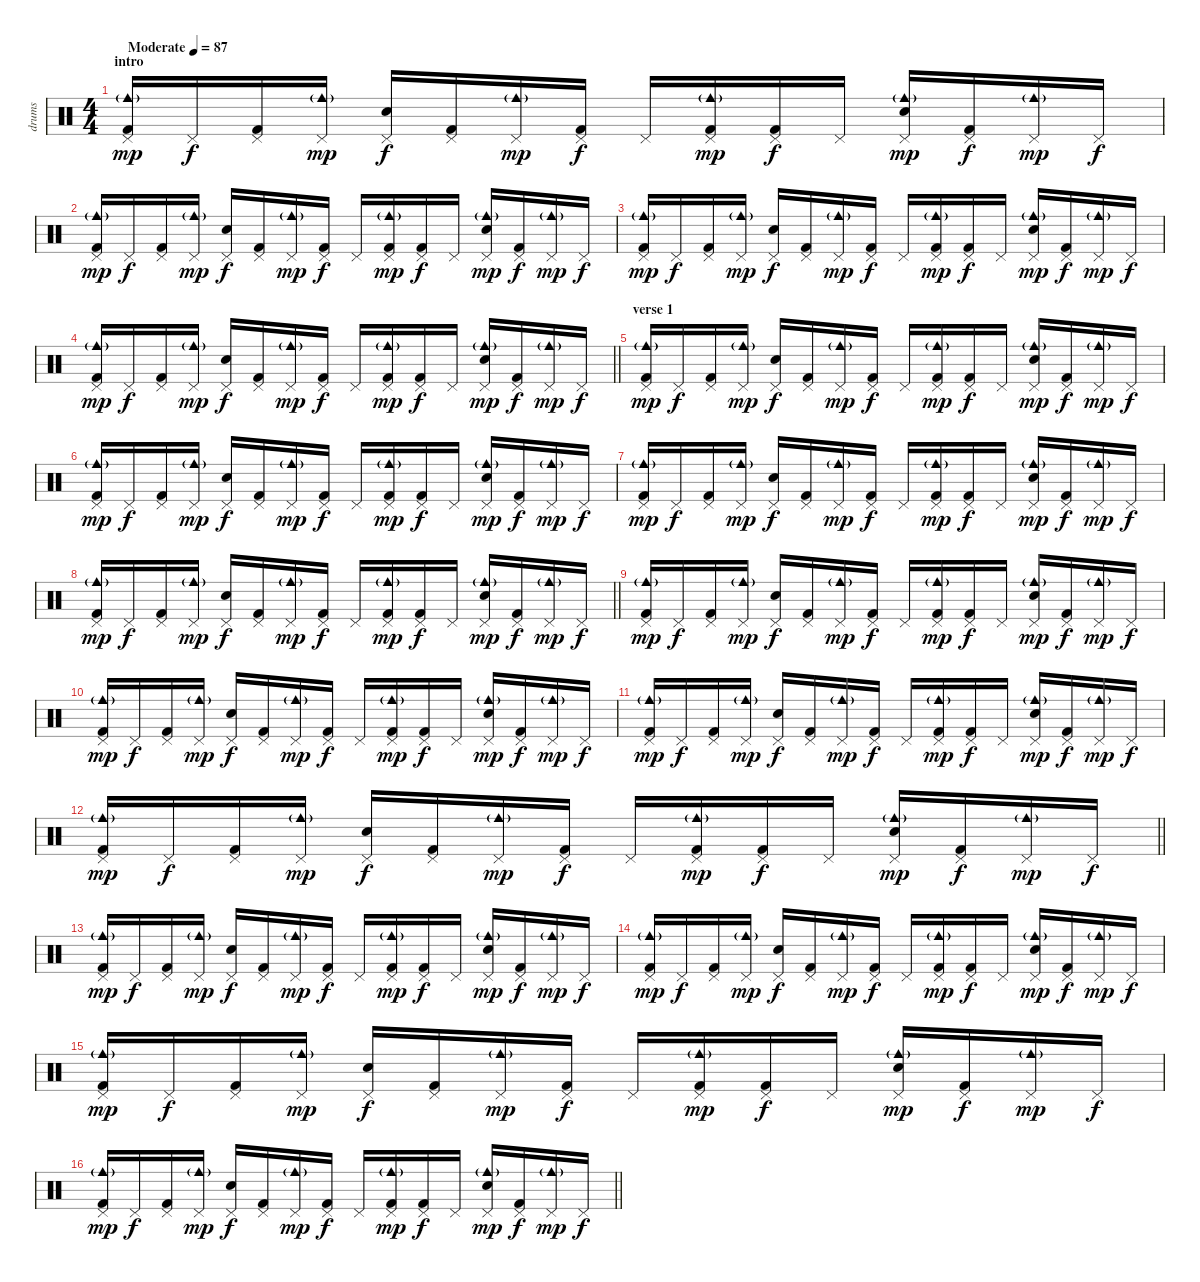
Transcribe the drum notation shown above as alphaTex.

\track ("drums" "drums") {instrument percussion}
\staff {score}
\articulation defaults
\ts (4 4)
\section ("" "intro")
\tempo (87 "Moderate")
\clef neutral
\ks c
("Kick (hit) 2" "Pedal Hi-Hat (hit)" "Cowbell medium (hit)"{g}).16{dy mp} "Pedal Hi-Hat (hit)".16{dy f} ("Kick (hit) 2" "Pedal Hi-Hat (hit)").16 ("Pedal Hi-Hat (hit)" "Cowbell medium (hit)"{g}).16{dy mp} ("Snare (hit) 2" "Pedal Hi-Hat (hit)").16{dy f} ("Kick (hit) 2" "Pedal Hi-Hat (hit)").16 ("Pedal Hi-Hat (hit)" "Cowbell medium (hit)"{g}).16{dy mp} ("Kick (hit) 2" "Pedal Hi-Hat (hit)").16{dy f} "Pedal Hi-Hat (hit)".16 ("Kick (hit) 2" "Pedal Hi-Hat (hit)" "Cowbell medium (hit)"{g}).16{dy mp} ("Kick (hit) 2" "Pedal Hi-Hat (hit)").16{dy f} "Pedal Hi-Hat (hit)".16 ("Snare (hit) 2" "Pedal Hi-Hat (hit)" "Cowbell medium (hit)"{g}).16{dy mp} ("Kick (hit) 2" "Pedal Hi-Hat (hit)").16{dy f} ("Pedal Hi-Hat (hit)" "Cowbell medium (hit)"{g}).16{dy mp} "Pedal Hi-Hat (hit)".16{dy f} |
("Kick (hit) 2" "Pedal Hi-Hat (hit)" "Cowbell medium (hit)"{g}).16{dy mp} "Pedal Hi-Hat (hit)".16{dy f} ("Kick (hit) 2" "Pedal Hi-Hat (hit)").16 ("Pedal Hi-Hat (hit)" "Cowbell medium (hit)"{g}).16{dy mp} ("Snare (hit) 2" "Pedal Hi-Hat (hit)").16{dy f} ("Kick (hit) 2" "Pedal Hi-Hat (hit)").16 ("Pedal Hi-Hat (hit)" "Cowbell medium (hit)"{g}).16{dy mp} ("Kick (hit) 2" "Pedal Hi-Hat (hit)").16{dy f} "Pedal Hi-Hat (hit)".16 ("Kick (hit) 2" "Pedal Hi-Hat (hit)" "Cowbell medium (hit)"{g}).16{dy mp} ("Kick (hit) 2" "Pedal Hi-Hat (hit)").16{dy f} "Pedal Hi-Hat (hit)".16 ("Snare (hit) 2" "Pedal Hi-Hat (hit)" "Cowbell medium (hit)"{g}).16{dy mp} ("Kick (hit) 2" "Pedal Hi-Hat (hit)").16{dy f} ("Pedal Hi-Hat (hit)" "Cowbell medium (hit)"{g}).16{dy mp} "Pedal Hi-Hat (hit)".16{dy f} |
("Kick (hit) 2" "Pedal Hi-Hat (hit)" "Cowbell medium (hit)"{g}).16{dy mp} "Pedal Hi-Hat (hit)".16{dy f} ("Kick (hit) 2" "Pedal Hi-Hat (hit)").16 ("Pedal Hi-Hat (hit)" "Cowbell medium (hit)"{g}).16{dy mp} ("Snare (hit) 2" "Pedal Hi-Hat (hit)").16{dy f} ("Kick (hit) 2" "Pedal Hi-Hat (hit)").16 ("Pedal Hi-Hat (hit)" "Cowbell medium (hit)"{g}).16{dy mp} ("Kick (hit) 2" "Pedal Hi-Hat (hit)").16{dy f} "Pedal Hi-Hat (hit)".16 ("Kick (hit) 2" "Pedal Hi-Hat (hit)" "Cowbell medium (hit)"{g}).16{dy mp} ("Kick (hit) 2" "Pedal Hi-Hat (hit)").16{dy f} "Pedal Hi-Hat (hit)".16 ("Snare (hit) 2" "Pedal Hi-Hat (hit)" "Cowbell medium (hit)"{g}).16{dy mp} ("Kick (hit) 2" "Pedal Hi-Hat (hit)").16{dy f} ("Pedal Hi-Hat (hit)" "Cowbell medium (hit)"{g}).16{dy mp} "Pedal Hi-Hat (hit)".16{dy f} |
\barLineRight lightlight
("Kick (hit) 2" "Pedal Hi-Hat (hit)" "Cowbell medium (hit)"{g}).16{dy mp} "Pedal Hi-Hat (hit)".16{dy f} ("Kick (hit) 2" "Pedal Hi-Hat (hit)").16 ("Pedal Hi-Hat (hit)" "Cowbell medium (hit)"{g}).16{dy mp} ("Snare (hit) 2" "Pedal Hi-Hat (hit)").16{dy f} ("Kick (hit) 2" "Pedal Hi-Hat (hit)").16 ("Pedal Hi-Hat (hit)" "Cowbell medium (hit)"{g}).16{dy mp} ("Kick (hit) 2" "Pedal Hi-Hat (hit)").16{dy f} "Pedal Hi-Hat (hit)".16 ("Kick (hit) 2" "Pedal Hi-Hat (hit)" "Cowbell medium (hit)"{g}).16{dy mp} ("Kick (hit) 2" "Pedal Hi-Hat (hit)").16{dy f} "Pedal Hi-Hat (hit)".16 ("Snare (hit) 2" "Pedal Hi-Hat (hit)" "Cowbell medium (hit)"{g}).16{dy mp} ("Kick (hit) 2" "Pedal Hi-Hat (hit)").16{dy f} ("Pedal Hi-Hat (hit)" "Cowbell medium (hit)"{g}).16{dy mp} "Pedal Hi-Hat (hit)".16{dy f} |
\section ("" "verse 1")
("Kick (hit) 2" "Pedal Hi-Hat (hit)" "Cowbell medium (hit)"{g}).16{dy mp} "Pedal Hi-Hat (hit)".16{dy f} ("Kick (hit) 2" "Pedal Hi-Hat (hit)").16 ("Pedal Hi-Hat (hit)" "Cowbell medium (hit)"{g}).16{dy mp} ("Snare (hit) 2" "Pedal Hi-Hat (hit)").16{dy f} ("Kick (hit) 2" "Pedal Hi-Hat (hit)").16 ("Pedal Hi-Hat (hit)" "Cowbell medium (hit)"{g}).16{dy mp} ("Kick (hit) 2" "Pedal Hi-Hat (hit)").16{dy f} "Pedal Hi-Hat (hit)".16 ("Kick (hit) 2" "Pedal Hi-Hat (hit)" "Cowbell medium (hit)"{g}).16{dy mp} ("Kick (hit) 2" "Pedal Hi-Hat (hit)").16{dy f} "Pedal Hi-Hat (hit)".16 ("Snare (hit) 2" "Pedal Hi-Hat (hit)" "Cowbell medium (hit)"{g}).16{dy mp} ("Kick (hit) 2" "Pedal Hi-Hat (hit)").16{dy f} ("Pedal Hi-Hat (hit)" "Cowbell medium (hit)"{g}).16{dy mp} "Pedal Hi-Hat (hit)".16{dy f} |
("Kick (hit) 2" "Pedal Hi-Hat (hit)" "Cowbell medium (hit)"{g}).16{dy mp} "Pedal Hi-Hat (hit)".16{dy f} ("Kick (hit) 2" "Pedal Hi-Hat (hit)").16 ("Pedal Hi-Hat (hit)" "Cowbell medium (hit)"{g}).16{dy mp} ("Snare (hit) 2" "Pedal Hi-Hat (hit)").16{dy f} ("Kick (hit) 2" "Pedal Hi-Hat (hit)").16 ("Pedal Hi-Hat (hit)" "Cowbell medium (hit)"{g}).16{dy mp} ("Kick (hit) 2" "Pedal Hi-Hat (hit)").16{dy f} "Pedal Hi-Hat (hit)".16 ("Kick (hit) 2" "Pedal Hi-Hat (hit)" "Cowbell medium (hit)"{g}).16{dy mp} ("Kick (hit) 2" "Pedal Hi-Hat (hit)").16{dy f} "Pedal Hi-Hat (hit)".16 ("Snare (hit) 2" "Pedal Hi-Hat (hit)" "Cowbell medium (hit)"{g}).16{dy mp} ("Kick (hit) 2" "Pedal Hi-Hat (hit)").16{dy f} ("Pedal Hi-Hat (hit)" "Cowbell medium (hit)"{g}).16{dy mp} "Pedal Hi-Hat (hit)".16{dy f} |
("Kick (hit) 2" "Pedal Hi-Hat (hit)" "Cowbell medium (hit)"{g}).16{dy mp} "Pedal Hi-Hat (hit)".16{dy f} ("Kick (hit) 2" "Pedal Hi-Hat (hit)").16 ("Pedal Hi-Hat (hit)" "Cowbell medium (hit)"{g}).16{dy mp} ("Snare (hit) 2" "Pedal Hi-Hat (hit)").16{dy f} ("Kick (hit) 2" "Pedal Hi-Hat (hit)").16 ("Pedal Hi-Hat (hit)" "Cowbell medium (hit)"{g}).16{dy mp} ("Kick (hit) 2" "Pedal Hi-Hat (hit)").16{dy f} "Pedal Hi-Hat (hit)".16 ("Kick (hit) 2" "Pedal Hi-Hat (hit)" "Cowbell medium (hit)"{g}).16{dy mp} ("Kick (hit) 2" "Pedal Hi-Hat (hit)").16{dy f} "Pedal Hi-Hat (hit)".16 ("Snare (hit) 2" "Pedal Hi-Hat (hit)" "Cowbell medium (hit)"{g}).16{dy mp} ("Kick (hit) 2" "Pedal Hi-Hat (hit)").16{dy f} ("Pedal Hi-Hat (hit)" "Cowbell medium (hit)"{g}).16{dy mp} "Pedal Hi-Hat (hit)".16{dy f} |
\barLineRight lightlight
("Kick (hit) 2" "Pedal Hi-Hat (hit)" "Cowbell medium (hit)"{g}).16{dy mp} "Pedal Hi-Hat (hit)".16{dy f} ("Kick (hit) 2" "Pedal Hi-Hat (hit)").16 ("Pedal Hi-Hat (hit)" "Cowbell medium (hit)"{g}).16{dy mp} ("Snare (hit) 2" "Pedal Hi-Hat (hit)").16{dy f} ("Kick (hit) 2" "Pedal Hi-Hat (hit)").16 ("Pedal Hi-Hat (hit)" "Cowbell medium (hit)"{g}).16{dy mp} ("Kick (hit) 2" "Pedal Hi-Hat (hit)").16{dy f} "Pedal Hi-Hat (hit)".16 ("Kick (hit) 2" "Pedal Hi-Hat (hit)" "Cowbell medium (hit)"{g}).16{dy mp} ("Kick (hit) 2" "Pedal Hi-Hat (hit)").16{dy f} "Pedal Hi-Hat (hit)".16 ("Snare (hit) 2" "Pedal Hi-Hat (hit)" "Cowbell medium (hit)"{g}).16{dy mp} ("Kick (hit) 2" "Pedal Hi-Hat (hit)").16{dy f} ("Pedal Hi-Hat (hit)" "Cowbell medium (hit)"{g}).16{dy mp} "Pedal Hi-Hat (hit)".16{dy f} |
("Kick (hit) 2" "Pedal Hi-Hat (hit)" "Cowbell medium (hit)"{g}).16{dy mp} "Pedal Hi-Hat (hit)".16{dy f} ("Kick (hit) 2" "Pedal Hi-Hat (hit)").16 ("Pedal Hi-Hat (hit)" "Cowbell medium (hit)"{g}).16{dy mp} ("Snare (hit) 2" "Pedal Hi-Hat (hit)").16{dy f} ("Kick (hit) 2" "Pedal Hi-Hat (hit)").16 ("Pedal Hi-Hat (hit)" "Cowbell medium (hit)"{g}).16{dy mp} ("Kick (hit) 2" "Pedal Hi-Hat (hit)").16{dy f} "Pedal Hi-Hat (hit)".16 ("Kick (hit) 2" "Pedal Hi-Hat (hit)" "Cowbell medium (hit)"{g}).16{dy mp} ("Kick (hit) 2" "Pedal Hi-Hat (hit)").16{dy f} "Pedal Hi-Hat (hit)".16 ("Snare (hit) 2" "Pedal Hi-Hat (hit)" "Cowbell medium (hit)"{g}).16{dy mp} ("Kick (hit) 2" "Pedal Hi-Hat (hit)").16{dy f} ("Pedal Hi-Hat (hit)" "Cowbell medium (hit)"{g}).16{dy mp} "Pedal Hi-Hat (hit)".16{dy f} |
("Kick (hit) 2" "Pedal Hi-Hat (hit)" "Cowbell medium (hit)"{g}).16{dy mp} "Pedal Hi-Hat (hit)".16{dy f} ("Kick (hit) 2" "Pedal Hi-Hat (hit)").16 ("Pedal Hi-Hat (hit)" "Cowbell medium (hit)"{g}).16{dy mp} ("Snare (hit) 2" "Pedal Hi-Hat (hit)").16{dy f} ("Kick (hit) 2" "Pedal Hi-Hat (hit)").16 ("Pedal Hi-Hat (hit)" "Cowbell medium (hit)"{g}).16{dy mp} ("Kick (hit) 2" "Pedal Hi-Hat (hit)").16{dy f} "Pedal Hi-Hat (hit)".16 ("Kick (hit) 2" "Pedal Hi-Hat (hit)" "Cowbell medium (hit)"{g}).16{dy mp} ("Kick (hit) 2" "Pedal Hi-Hat (hit)").16{dy f} "Pedal Hi-Hat (hit)".16 ("Snare (hit) 2" "Pedal Hi-Hat (hit)" "Cowbell medium (hit)"{g}).16{dy mp} ("Kick (hit) 2" "Pedal Hi-Hat (hit)").16{dy f} ("Pedal Hi-Hat (hit)" "Cowbell medium (hit)"{g}).16{dy mp} "Pedal Hi-Hat (hit)".16{dy f} |
("Kick (hit) 2" "Pedal Hi-Hat (hit)" "Cowbell medium (hit)"{g}).16{dy mp} "Pedal Hi-Hat (hit)".16{dy f} ("Kick (hit) 2" "Pedal Hi-Hat (hit)").16 ("Pedal Hi-Hat (hit)" "Cowbell medium (hit)"{g}).16{dy mp} ("Snare (hit) 2" "Pedal Hi-Hat (hit)").16{dy f} ("Kick (hit) 2" "Pedal Hi-Hat (hit)").16 ("Pedal Hi-Hat (hit)" "Cowbell medium (hit)"{g}).16{dy mp} ("Kick (hit) 2" "Pedal Hi-Hat (hit)").16{dy f} "Pedal Hi-Hat (hit)".16 ("Kick (hit) 2" "Pedal Hi-Hat (hit)" "Cowbell medium (hit)"{g}).16{dy mp} ("Kick (hit) 2" "Pedal Hi-Hat (hit)").16{dy f} "Pedal Hi-Hat (hit)".16 ("Snare (hit) 2" "Pedal Hi-Hat (hit)" "Cowbell medium (hit)"{g}).16{dy mp} ("Kick (hit) 2" "Pedal Hi-Hat (hit)").16{dy f} ("Pedal Hi-Hat (hit)" "Cowbell medium (hit)"{g}).16{dy mp} "Pedal Hi-Hat (hit)".16{dy f} |
\barLineRight lightlight
("Kick (hit) 2" "Pedal Hi-Hat (hit)" "Cowbell medium (hit)"{g}).16{dy mp} "Pedal Hi-Hat (hit)".16{dy f} ("Kick (hit) 2" "Pedal Hi-Hat (hit)").16 ("Pedal Hi-Hat (hit)" "Cowbell medium (hit)"{g}).16{dy mp} ("Snare (hit) 2" "Pedal Hi-Hat (hit)").16{dy f} ("Kick (hit) 2" "Pedal Hi-Hat (hit)").16 ("Pedal Hi-Hat (hit)" "Cowbell medium (hit)"{g}).16{dy mp} ("Kick (hit) 2" "Pedal Hi-Hat (hit)").16{dy f} "Pedal Hi-Hat (hit)".16 ("Kick (hit) 2" "Pedal Hi-Hat (hit)" "Cowbell medium (hit)"{g}).16{dy mp} ("Kick (hit) 2" "Pedal Hi-Hat (hit)").16{dy f} "Pedal Hi-Hat (hit)".16 ("Snare (hit) 2" "Pedal Hi-Hat (hit)" "Cowbell medium (hit)"{g}).16{dy mp} ("Kick (hit) 2" "Pedal Hi-Hat (hit)").16{dy f} ("Pedal Hi-Hat (hit)" "Cowbell medium (hit)"{g}).16{dy mp} "Pedal Hi-Hat (hit)".16{dy f} |
("Kick (hit) 2" "Pedal Hi-Hat (hit)" "Cowbell medium (hit)"{g}).16{dy mp} "Pedal Hi-Hat (hit)".16{dy f} ("Kick (hit) 2" "Pedal Hi-Hat (hit)").16 ("Pedal Hi-Hat (hit)" "Cowbell medium (hit)"{g}).16{dy mp} ("Snare (hit) 2" "Pedal Hi-Hat (hit)").16{dy f} ("Kick (hit) 2" "Pedal Hi-Hat (hit)").16 ("Pedal Hi-Hat (hit)" "Cowbell medium (hit)"{g}).16{dy mp} ("Kick (hit) 2" "Pedal Hi-Hat (hit)").16{dy f} "Pedal Hi-Hat (hit)".16 ("Kick (hit) 2" "Pedal Hi-Hat (hit)" "Cowbell medium (hit)"{g}).16{dy mp} ("Kick (hit) 2" "Pedal Hi-Hat (hit)").16{dy f} "Pedal Hi-Hat (hit)".16 ("Snare (hit) 2" "Pedal Hi-Hat (hit)" "Cowbell medium (hit)"{g}).16{dy mp} ("Kick (hit) 2" "Pedal Hi-Hat (hit)").16{dy f} ("Pedal Hi-Hat (hit)" "Cowbell medium (hit)"{g}).16{dy mp} "Pedal Hi-Hat (hit)".16{dy f} |
("Kick (hit) 2" "Pedal Hi-Hat (hit)" "Cowbell medium (hit)"{g}).16{dy mp} "Pedal Hi-Hat (hit)".16{dy f} ("Kick (hit) 2" "Pedal Hi-Hat (hit)").16 ("Pedal Hi-Hat (hit)" "Cowbell medium (hit)"{g}).16{dy mp} ("Snare (hit) 2" "Pedal Hi-Hat (hit)").16{dy f} ("Kick (hit) 2" "Pedal Hi-Hat (hit)").16 ("Pedal Hi-Hat (hit)" "Cowbell medium (hit)"{g}).16{dy mp} ("Kick (hit) 2" "Pedal Hi-Hat (hit)").16{dy f} "Pedal Hi-Hat (hit)".16 ("Kick (hit) 2" "Pedal Hi-Hat (hit)" "Cowbell medium (hit)"{g}).16{dy mp} ("Kick (hit) 2" "Pedal Hi-Hat (hit)").16{dy f} "Pedal Hi-Hat (hit)".16 ("Snare (hit) 2" "Pedal Hi-Hat (hit)" "Cowbell medium (hit)"{g}).16{dy mp} ("Kick (hit) 2" "Pedal Hi-Hat (hit)").16{dy f} ("Pedal Hi-Hat (hit)" "Cowbell medium (hit)"{g}).16{dy mp} "Pedal Hi-Hat (hit)".16{dy f} |
("Kick (hit) 2" "Pedal Hi-Hat (hit)" "Cowbell medium (hit)"{g}).16{dy mp} "Pedal Hi-Hat (hit)".16{dy f} ("Kick (hit) 2" "Pedal Hi-Hat (hit)").16 ("Pedal Hi-Hat (hit)" "Cowbell medium (hit)"{g}).16{dy mp} ("Snare (hit) 2" "Pedal Hi-Hat (hit)").16{dy f} ("Kick (hit) 2" "Pedal Hi-Hat (hit)").16 ("Pedal Hi-Hat (hit)" "Cowbell medium (hit)"{g}).16{dy mp} ("Kick (hit) 2" "Pedal Hi-Hat (hit)").16{dy f} "Pedal Hi-Hat (hit)".16 ("Kick (hit) 2" "Pedal Hi-Hat (hit)" "Cowbell medium (hit)"{g}).16{dy mp} ("Kick (hit) 2" "Pedal Hi-Hat (hit)").16{dy f} "Pedal Hi-Hat (hit)".16 ("Snare (hit) 2" "Pedal Hi-Hat (hit)" "Cowbell medium (hit)"{g}).16{dy mp} ("Kick (hit) 2" "Pedal Hi-Hat (hit)").16{dy f} ("Pedal Hi-Hat (hit)" "Cowbell medium (hit)"{g}).16{dy mp} "Pedal Hi-Hat (hit)".16{dy f} |
\barLineRight lightlight
("Kick (hit) 2" "Pedal Hi-Hat (hit)" "Cowbell medium (hit)"{g}).16{dy mp} "Pedal Hi-Hat (hit)".16{dy f} ("Kick (hit) 2" "Pedal Hi-Hat (hit)").16 ("Pedal Hi-Hat (hit)" "Cowbell medium (hit)"{g}).16{dy mp} ("Snare (hit) 2" "Pedal Hi-Hat (hit)").16{dy f} ("Kick (hit) 2" "Pedal Hi-Hat (hit)").16 ("Pedal Hi-Hat (hit)" "Cowbell medium (hit)"{g}).16{dy mp} ("Kick (hit) 2" "Pedal Hi-Hat (hit)").16{dy f} "Pedal Hi-Hat (hit)".16 ("Kick (hit) 2" "Pedal Hi-Hat (hit)" "Cowbell medium (hit)"{g}).16{dy mp} ("Kick (hit) 2" "Pedal Hi-Hat (hit)").16{dy f} "Pedal Hi-Hat (hit)".16 ("Snare (hit) 2" "Pedal Hi-Hat (hit)" "Cowbell medium (hit)"{g}).16{dy mp} ("Kick (hit) 2" "Pedal Hi-Hat (hit)").16{dy f} ("Pedal Hi-Hat (hit)" "Cowbell medium (hit)"{g}).16{dy mp} "Pedal Hi-Hat (hit)".16{dy f}
